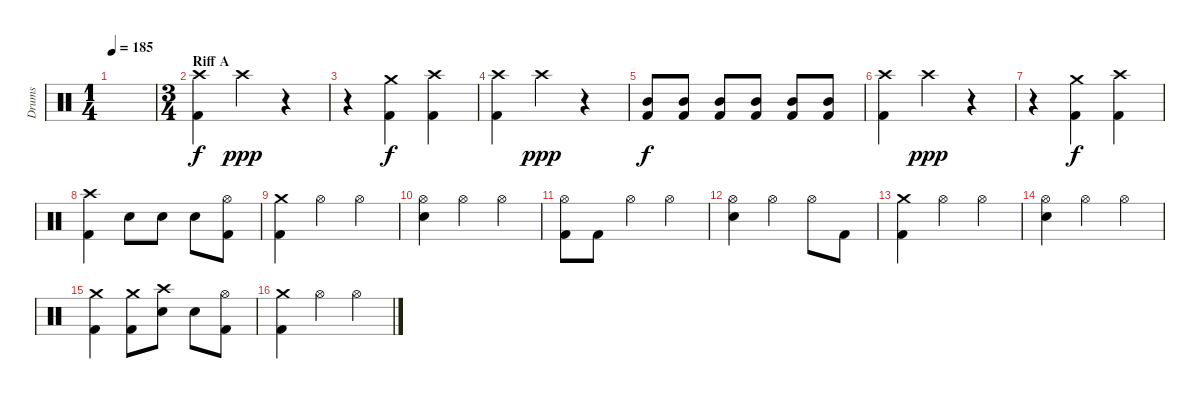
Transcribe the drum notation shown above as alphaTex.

\track ("Drums" "Drums") {instrument percussion}
\staff {score}
\articulation defaults
\ts (1 4)
\tempo 185
\clef neutral
\ks c
|
\ts (3 4)
\section ("" "Riff A")
("Crash high (hit)" "Kick (hit) 2").4 "Crash high (hit)".4{dy ppp} r.4 |
r.4 ("Crash medium (hit)" "Kick (hit) 2").4{dy f} ("Crash high (hit)" "Kick (hit) 2").4 |
("Crash high (hit)" "Kick (hit) 2").4 "Crash high (hit)".4{dy ppp} r.4 |
("Mid Tom (hit)" "Kick (hit) 2").8{dy f} ("Mid Tom (hit)" "Kick (hit) 2").8 ("Mid Tom (hit)" "Kick (hit) 2").8 ("Mid Tom (hit)" "Kick (hit) 2").8 ("Mid Tom (hit)" "Kick (hit) 2").8 ("Mid Tom (hit)" "Kick (hit) 2").8 |
("Crash high (hit)" "Kick (hit) 2").4 "Crash high (hit)".4{dy ppp} r.4 |
r.4 ("Crash medium (hit)" "Kick (hit) 2").4{dy f} ("Crash high (hit)" "Kick (hit) 2").4 |
("Crash high (hit)" "Kick (hit) 2").4 "Electric Snare (hit)".8 "Electric Snare (hit)".8 "Electric Snare (hit)".8 ("Hi-Hat (open)" "Kick (hit) 2").8 |
("Crash medium (hit)" "Kick (hit) 2").4 "Hi-Hat (open)".4 "Hi-Hat (open)".4 |
("Hi-Hat (open)" "Electric Snare (hit)").4 "Hi-Hat (open)".4 "Hi-Hat (open)".4 |
("Hi-Hat (open)" "Kick (hit) 2").8 "Kick (hit) 2".8 "Hi-Hat (open)".4 "Hi-Hat (open)".4 |
("Hi-Hat (open)" "Electric Snare (hit)").4 "Hi-Hat (open)".4 "Hi-Hat (open)".8 "Kick (hit) 2".8 |
("Crash medium (hit)" "Kick (hit) 2").4 "Hi-Hat (open)".4 "Hi-Hat (open)".4 |
("Hi-Hat (open)" "Electric Snare (hit)").4 "Hi-Hat (open)".4 "Hi-Hat (open)".4 |
("Crash medium (hit)" "Kick (hit) 2").4 ("Crash medium (hit)" "Kick (hit) 2").8 ("Crash high (hit)" "Electric Snare (hit)").8 "Electric Snare (hit)".8 ("Hi-Hat (open)" "Kick (hit) 2").8 |
("Crash medium (hit)" "Kick (hit) 2").4 "Hi-Hat (open)".4 "Hi-Hat (open)".4
